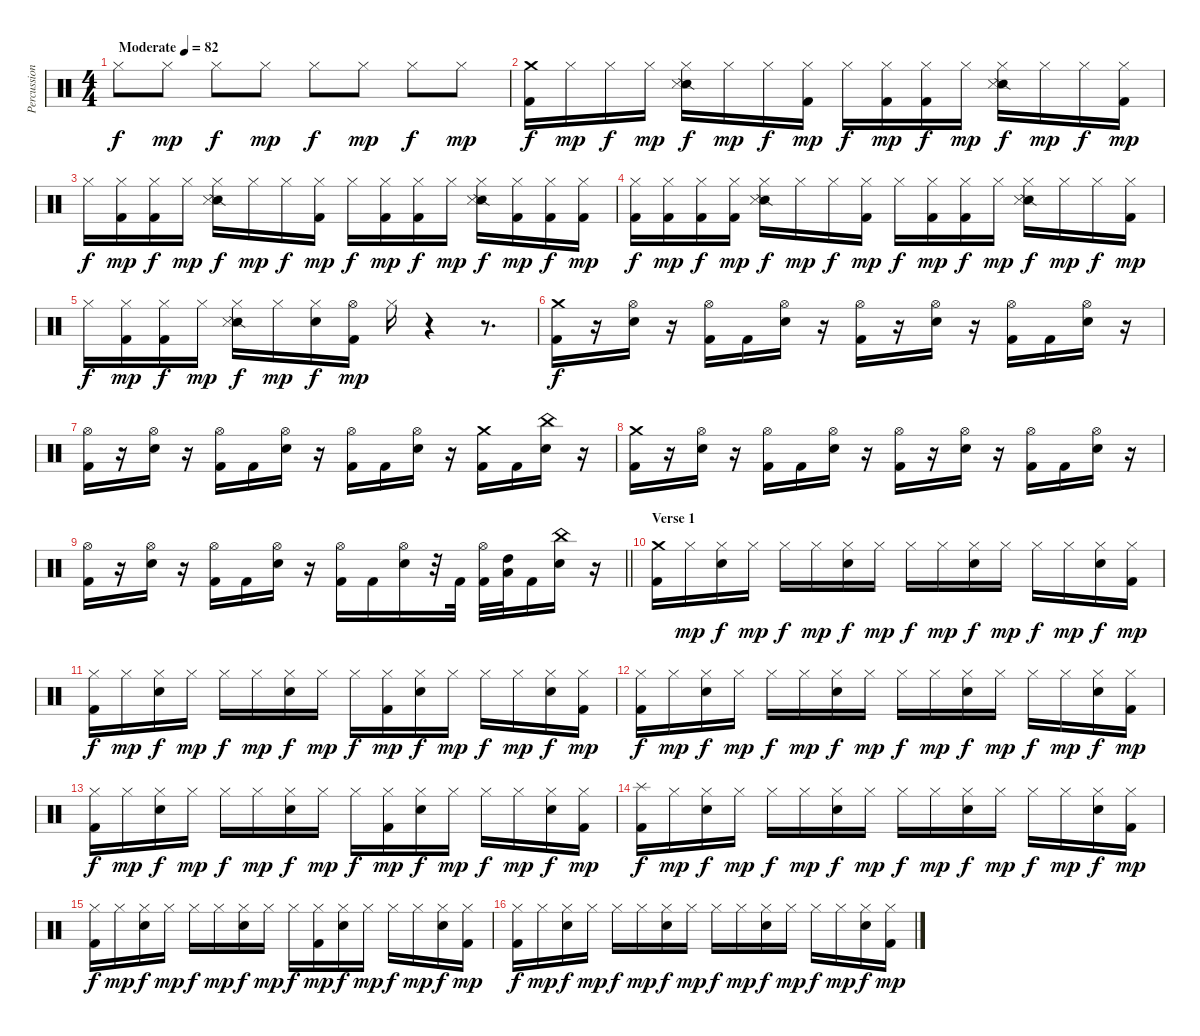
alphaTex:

\track ("Percussion" "Percussion") {solo instrument percussion}
\staff {score}
\articulation defaults
\ts (4 4)
\tempo (82 "Moderate")
\clef neutral
\ks c "Hi-Hat (closed)".8{dy f} "Hi-Hat (closed)".8{dy mp} "Hi-Hat (closed)".8{dy f} "Hi-Hat (closed)".8{dy mp} "Hi-Hat (closed)".8{dy f} "Hi-Hat (closed)".8{dy mp} "Hi-Hat (closed)".8{dy f} "Hi-Hat (closed)".8{dy mp}
|
("Crash medium (hit)" "Kick (hit) 2").16{dy f} "Hi-Hat (closed)".16{dy mp} "Hi-Hat (closed)".16{dy f} "Hi-Hat (closed)".16{dy mp} ("Hi-Hat (closed)" "Snare (side stick) 2" "Snare (side stick) 3").16{dy f} "Hi-Hat (closed)".16{dy mp} "Hi-Hat (closed)".16{dy f} ("Hi-Hat (closed)" "Kick (hit) 2").16{dy mp} "Hi-Hat (closed)".16{dy f} ("Hi-Hat (closed)" "Kick (hit) 2").16{dy mp} ("Hi-Hat (closed)" "Kick (hit) 2").16{dy f} "Hi-Hat (closed)".16{dy mp} ("Hi-Hat (closed)" "Snare (side stick) 2" "Snare (side stick) 3").16{dy f} "Hi-Hat (closed)".16{dy mp} "Hi-Hat (closed)".16{dy f} ("Hi-Hat (closed)" "Kick (hit) 2").16{dy mp} |
"Hi-Hat (closed)".16{dy f} ("Hi-Hat (closed)" "Kick (hit) 2").16{dy mp} ("Hi-Hat (closed)" "Kick (hit) 2").16{dy f} "Hi-Hat (closed)".16{dy mp} ("Hi-Hat (closed)" "Snare (side stick) 2" "Snare (side stick) 3").16{dy f} "Hi-Hat (closed)".16{dy mp} "Hi-Hat (closed)".16{dy f} ("Hi-Hat (closed)" "Kick (hit) 2").16{dy mp} "Hi-Hat (closed)".16{dy f} ("Hi-Hat (closed)" "Kick (hit) 2").16{dy mp} ("Hi-Hat (closed)" "Kick (hit) 2").16{dy f} "Hi-Hat (closed)".16{dy mp} ("Hi-Hat (closed)" "Snare (side stick) 2" "Snare (side stick) 3").16{dy f} ("Hi-Hat (closed)" "Kick (hit) 2").16{dy mp} ("Hi-Hat (closed)" "Kick (hit) 2").16{dy f} ("Hi-Hat (closed)" "Kick (hit) 2").16{dy mp} |
("Hi-Hat (closed)" "Kick (hit) 2").16{dy f} ("Hi-Hat (closed)" "Kick (hit) 2").16{dy mp} ("Hi-Hat (closed)" "Kick (hit) 2").16{dy f} ("Hi-Hat (closed)" "Kick (hit) 2").16{dy mp} ("Hi-Hat (closed)" "Snare (side stick) 2" "Snare (side stick) 3").16{dy f} "Hi-Hat (closed)".16{dy mp} "Hi-Hat (closed)".16{dy f} ("Hi-Hat (closed)" "Kick (hit) 2").16{dy mp} "Hi-Hat (closed)".16{dy f} ("Hi-Hat (closed)" "Kick (hit) 2").16{dy mp} ("Hi-Hat (closed)" "Kick (hit) 2").16{dy f} "Hi-Hat (closed)".16{dy mp} ("Hi-Hat (closed)" "Snare (side stick) 2" "Snare (side stick) 3").16{dy f} "Hi-Hat (closed)".16{dy mp} "Hi-Hat (closed)".16{dy f} ("Hi-Hat (closed)" "Kick (hit) 2").16{dy mp} |
"Hi-Hat (closed)".16{dy f} ("Hi-Hat (closed)" "Kick (hit) 2").16{dy mp} ("Hi-Hat (closed)" "Kick (hit) 2").16{dy f} "Hi-Hat (closed)".16{dy mp} ("Hi-Hat (closed)" "Snare (side stick) 2" "Snare (side stick) 3").16{dy f} "Hi-Hat (closed)".16{dy mp} ("Hi-Hat (closed)" "Electric Snare (hit)").16{dy f} ("Hi-Hat (open)" "Kick (hit) 2").16{dy mp} "Hi-Hat (closed)".16 r.4 r.8{d} |
("Crash medium (hit)" "Kick (hit) 2").16{dy f} r.16 ("Hi-Hat (open)" "Electric Snare (hit)").16 r.16 ("Hi-Hat (open)" "Kick (hit) 2").16 "Kick (hit) 2".16 ("Hi-Hat (open)" "Electric Snare (hit)").16 r.16 ("Hi-Hat (open)" "Kick (hit) 2").16 r.16 ("Hi-Hat (open)" "Electric Snare (hit)").16 r.16 ("Hi-Hat (open)" "Kick (hit) 2").16 "Kick (hit) 2".16 ("Hi-Hat (open)" "Electric Snare (hit)").16 r.16 |
("Hi-Hat (open)" "Kick (hit) 2").16 r.16 ("Hi-Hat (open)" "Electric Snare (hit)").16 r.16 ("Hi-Hat (open)" "Kick (hit) 2").16 "Kick (hit) 2".16 ("Hi-Hat (open)" "Electric Snare (hit)").16 r.16 ("Hi-Hat (open)" "Kick (hit) 2").16 "Kick (hit) 2".16 ("Hi-Hat (open)" "Electric Snare (hit)").16 r.16 ("Crash medium (hit)" "Kick (hit) 2").16 "Kick (hit) 2".16 ("China (hit)" "Electric Snare (hit)").16 r.16 |
("Crash medium (hit)" "Kick (hit) 2").16 r.16 ("Hi-Hat (open)" "Electric Snare (hit)").16 r.16 ("Hi-Hat (open)" "Kick (hit) 2").16 "Kick (hit) 2".16 ("Hi-Hat (open)" "Electric Snare (hit)").16 r.16 ("Hi-Hat (open)" "Kick (hit) 2").16 r.16 ("Hi-Hat (open)" "Electric Snare (hit)").16 r.16 ("Hi-Hat (open)" "Kick (hit) 2").16 "Kick (hit) 2".16 ("Hi-Hat (open)" "Electric Snare (hit)").16 r.16 |
\barLineRight lightlight
("Hi-Hat (open)" "Kick (hit) 2").16 r.16 ("Hi-Hat (open)" "Electric Snare (hit)").16 r.16 ("Hi-Hat (open)" "Kick (hit) 2").16 "Kick (hit) 2".16 ("Hi-Hat (open)" "Electric Snare (hit)").16 r.16 ("Hi-Hat (open)" "Kick (hit) 2").16 "Kick (hit) 2".16 ("Hi-Hat (open)" "Electric Snare (hit)").16 r.32 "Kick (hit) 2".32 ("Hi-Hat (open)" "Kick (hit) 2").32 ("Low Tom (hit)" "High Tom (hit)").32 "Kick (hit) 2".16 ("China (hit)" "Electric Snare (hit)").16 r.16 |
\section ("" "Verse 1")
("Crash medium (hit)" "Kick (hit) 2").16 "Hi-Hat (closed)".16{dy mp} ("Hi-Hat (closed)" "Electric Snare (hit)").16{dy f} "Hi-Hat (closed)".16{dy mp} "Hi-Hat (closed)".16{dy f} "Hi-Hat (closed)".16{dy mp} ("Hi-Hat (closed)" "Electric Snare (hit)").16{dy f} "Hi-Hat (closed)".16{dy mp} "Hi-Hat (closed)".16{dy f} "Hi-Hat (closed)".16{dy mp} ("Hi-Hat (closed)" "Electric Snare (hit)").16{dy f} "Hi-Hat (closed)".16{dy mp} "Hi-Hat (closed)".16{dy f} "Hi-Hat (closed)".16{dy mp} ("Hi-Hat (closed)" "Electric Snare (hit)").16{dy f} ("Hi-Hat (closed)" "Kick (hit) 2").16{dy mp} |
("Hi-Hat (closed)" "Kick (hit) 2").16{dy f} "Hi-Hat (closed)".16{dy mp} ("Hi-Hat (closed)" "Electric Snare (hit)").16{dy f} "Hi-Hat (closed)".16{dy mp} "Hi-Hat (closed)".16{dy f} "Hi-Hat (closed)".16{dy mp} ("Hi-Hat (closed)" "Electric Snare (hit)").16{dy f} "Hi-Hat (closed)".16{dy mp} "Hi-Hat (closed)".16{dy f} ("Hi-Hat (closed)" "Kick (hit) 2").16{dy mp} ("Hi-Hat (closed)" "Electric Snare (hit)").16{dy f} "Hi-Hat (closed)".16{dy mp} "Hi-Hat (closed)".16{dy f} "Hi-Hat (closed)".16{dy mp} ("Hi-Hat (closed)" "Electric Snare (hit)").16{dy f} ("Hi-Hat (closed)" "Kick (hit) 2").16{dy mp} |
("Hi-Hat (closed)" "Kick (hit) 2").16{dy f} "Hi-Hat (closed)".16{dy mp} ("Hi-Hat (closed)" "Electric Snare (hit)").16{dy f} "Hi-Hat (closed)".16{dy mp} "Hi-Hat (closed)".16{dy f} "Hi-Hat (closed)".16{dy mp} ("Hi-Hat (closed)" "Electric Snare (hit)").16{dy f} "Hi-Hat (closed)".16{dy mp} "Hi-Hat (closed)".16{dy f} "Hi-Hat (closed)".16{dy mp} ("Hi-Hat (closed)" "Electric Snare (hit)").16{dy f} "Hi-Hat (closed)".16{dy mp} "Hi-Hat (closed)".16{dy f} "Hi-Hat (closed)".16{dy mp} ("Hi-Hat (closed)" "Electric Snare (hit)").16{dy f} ("Hi-Hat (closed)" "Kick (hit) 2").16{dy mp} |
("Hi-Hat (closed)" "Kick (hit) 2").16{dy f} "Hi-Hat (closed)".16{dy mp} ("Hi-Hat (closed)" "Electric Snare (hit)").16{dy f} "Hi-Hat (closed)".16{dy mp} "Hi-Hat (closed)".16{dy f} "Hi-Hat (closed)".16{dy mp} ("Hi-Hat (closed)" "Electric Snare (hit)").16{dy f} "Hi-Hat (closed)".16{dy mp} "Hi-Hat (closed)".16{dy f} ("Hi-Hat (closed)" "Kick (hit) 2").16{dy mp} ("Hi-Hat (closed)" "Electric Snare (hit)").16{dy f} "Hi-Hat (closed)".16{dy mp} "Hi-Hat (closed)".16{dy f} "Hi-Hat (closed)".16{dy mp} ("Hi-Hat (closed)" "Electric Snare (hit)").16{dy f} ("Hi-Hat (closed)" "Kick (hit) 2").16{dy mp} |
("Splash (hit)" "Kick (hit) 2").16{dy f} "Hi-Hat (closed)".16{dy mp} ("Hi-Hat (closed)" "Electric Snare (hit)").16{dy f} "Hi-Hat (closed)".16{dy mp} "Hi-Hat (closed)".16{dy f} "Hi-Hat (closed)".16{dy mp} ("Hi-Hat (closed)" "Electric Snare (hit)").16{dy f} "Hi-Hat (closed)".16{dy mp} "Hi-Hat (closed)".16{dy f} "Hi-Hat (closed)".16{dy mp} ("Hi-Hat (closed)" "Electric Snare (hit)").16{dy f} "Hi-Hat (closed)".16{dy mp} "Hi-Hat (closed)".16{dy f} "Hi-Hat (closed)".16{dy mp} ("Hi-Hat (closed)" "Electric Snare (hit)").16{dy f} ("Hi-Hat (closed)" "Kick (hit) 2").16{dy mp} |
("Hi-Hat (closed)" "Kick (hit) 2").16{dy f} "Hi-Hat (closed)".16{dy mp} ("Hi-Hat (closed)" "Electric Snare (hit)").16{dy f} "Hi-Hat (closed)".16{dy mp} "Hi-Hat (closed)".16{dy f} "Hi-Hat (closed)".16{dy mp} ("Hi-Hat (closed)" "Electric Snare (hit)").16{dy f} "Hi-Hat (closed)".16{dy mp} "Hi-Hat (closed)".16{dy f} ("Hi-Hat (closed)" "Kick (hit) 2").16{dy mp} ("Hi-Hat (closed)" "Electric Snare (hit)").16{dy f} "Hi-Hat (closed)".16{dy mp} "Hi-Hat (closed)".16{dy f} "Hi-Hat (closed)".16{dy mp} ("Hi-Hat (closed)" "Electric Snare (hit)").16{dy f} ("Hi-Hat (closed)" "Kick (hit) 2").16{dy mp} |
("Hi-Hat (closed)" "Kick (hit) 2").16{dy f} "Hi-Hat (closed)".16{dy mp} ("Hi-Hat (closed)" "Electric Snare (hit)").16{dy f} "Hi-Hat (closed)".16{dy mp} "Hi-Hat (closed)".16{dy f} "Hi-Hat (closed)".16{dy mp} ("Hi-Hat (closed)" "Electric Snare (hit)").16{dy f} "Hi-Hat (closed)".16{dy mp} "Hi-Hat (closed)".16{dy f} "Hi-Hat (closed)".16{dy mp} ("Hi-Hat (closed)" "Electric Snare (hit)").16{dy f} "Hi-Hat (closed)".16{dy mp} "Hi-Hat (closed)".16{dy f} "Hi-Hat (closed)".16{dy mp} ("Hi-Hat (closed)" "Electric Snare (hit)").16{dy f} ("Hi-Hat (closed)" "Kick (hit) 2").16{dy mp}
